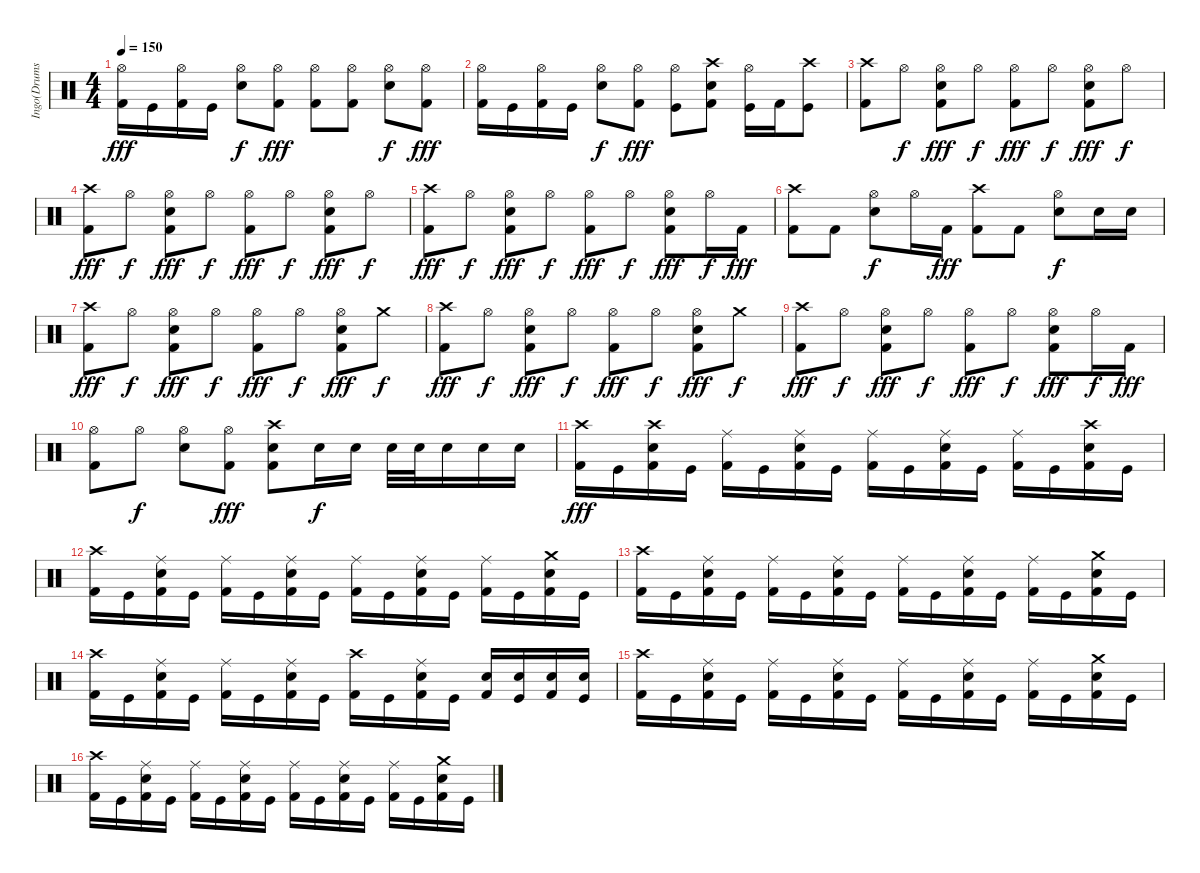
\track ("Ingo(Drums)" "Ingo(Drums") {instrument percussion}
\staff {score}
\articulation defaults
\ts (4 4)
\tempo 150
\clef neutral
\ks c
("Hi-Hat (open)" "Kick (hit) 2").16{dy fff} "Kick (hit)".16 ("Hi-Hat (open)" "Kick (hit) 2").16 "Kick (hit)".16 ("Hi-Hat (open)" "Electric Snare (hit)").8{dy f} ("Hi-Hat (open)" "Kick (hit) 2").8{dy fff} ("Hi-Hat (open)" "Kick (hit) 2").8 ("Hi-Hat (open)" "Kick (hit) 2").8 ("Hi-Hat (open)" "Electric Snare (hit)").8{dy f} ("Hi-Hat (open)" "Kick (hit) 2").8{dy fff} |
("Hi-Hat (open)" "Kick (hit) 2").16 "Kick (hit)".16 ("Hi-Hat (open)" "Kick (hit) 2").16 "Kick (hit)".16 ("Hi-Hat (open)" "Electric Snare (hit)").8{dy f} ("Hi-Hat (open)" "Kick (hit) 2").8{dy fff} ("Hi-Hat (open)" "Kick (hit)").8 ("Crash high (hit)" "Electric Snare (hit)" "Kick (hit) 2").8 ("Hi-Hat (open)" "Kick (hit)").16 "Kick (hit) 2".16 ("Crash high (hit)" "Kick (hit)").8 |
("Crash high (hit)" "Kick (hit) 2").8 "Hi-Hat (open)".8{dy f} ("Hi-Hat (open)" "Electric Snare (hit)" "Kick (hit) 2").8{dy fff} "Hi-Hat (open)".8{dy f} ("Hi-Hat (open)" "Kick (hit) 2").8{dy fff} "Hi-Hat (open)".8{dy f} ("Hi-Hat (open)" "Electric Snare (hit)" "Kick (hit) 2").8{dy fff} "Hi-Hat (open)".8{dy f} |
("Crash high (hit)" "Kick (hit) 2").8{dy fff} "Hi-Hat (open)".8{dy f} ("Hi-Hat (open)" "Electric Snare (hit)" "Kick (hit) 2").8{dy fff} "Hi-Hat (open)".8{dy f} ("Hi-Hat (open)" "Kick (hit) 2").8{dy fff} "Hi-Hat (open)".8{dy f} ("Hi-Hat (open)" "Electric Snare (hit)" "Kick (hit) 2").8{dy fff} "Hi-Hat (open)".8{dy f} |
("Crash high (hit)" "Kick (hit) 2").8{dy fff} "Hi-Hat (open)".8{dy f} ("Hi-Hat (open)" "Electric Snare (hit)" "Kick (hit) 2").8{dy fff} "Hi-Hat (open)".8{dy f} ("Hi-Hat (open)" "Kick (hit) 2").8{dy fff} "Hi-Hat (open)".8{dy f} ("Hi-Hat (open)" "Electric Snare (hit)" "Kick (hit) 2").8{dy fff} "Hi-Hat (open)".16{dy f} "Kick (hit) 2".16{dy fff} |
("Crash high (hit)" "Kick (hit) 2").8 "Kick (hit) 2".8 ("Hi-Hat (open)" "Electric Snare (hit)").8{dy f} "Hi-Hat (open)".16 "Kick (hit) 2".16{dy fff} ("Crash high (hit)" "Kick (hit) 2").8 "Kick (hit) 2".8 ("Hi-Hat (open)" "Electric Snare (hit)").8{dy f} "Electric Snare (hit)".16 "Electric Snare (hit)".16 |
("Crash high (hit)" "Kick (hit) 2").8{dy fff} "Hi-Hat (open)".8{dy f} ("Hi-Hat (open)" "Electric Snare (hit)" "Kick (hit) 2").8{dy fff} "Hi-Hat (open)".8{dy f} ("Hi-Hat (open)" "Kick (hit) 2").8{dy fff} "Hi-Hat (open)".8{dy f} ("Hi-Hat (open)" "Electric Snare (hit)" "Kick (hit) 2").8{dy fff} "Crash medium (hit)".8{dy f} |
("Crash high (hit)" "Kick (hit) 2").8{dy fff} "Hi-Hat (open)".8{dy f} ("Hi-Hat (open)" "Electric Snare (hit)" "Kick (hit) 2").8{dy fff} "Hi-Hat (open)".8{dy f} ("Hi-Hat (open)" "Kick (hit) 2").8{dy fff} "Hi-Hat (open)".8{dy f} ("Hi-Hat (open)" "Electric Snare (hit)" "Kick (hit) 2").8{dy fff} "Crash medium (hit)".8{dy f} |
("Crash high (hit)" "Kick (hit) 2").8{dy fff} "Hi-Hat (open)".8{dy f} ("Hi-Hat (open)" "Electric Snare (hit)" "Kick (hit) 2").8{dy fff} "Hi-Hat (open)".8{dy f} ("Hi-Hat (open)" "Kick (hit) 2").8{dy fff} "Hi-Hat (open)".8{dy f} ("Hi-Hat (open)" "Electric Snare (hit)" "Kick (hit) 2").8{dy fff} "Hi-Hat (open)".16{dy f} "Kick (hit) 2".16{dy fff} |
("Hi-Hat (open)" "Kick (hit) 2").8 "Hi-Hat (open)".8{dy f} ("Hi-Hat (open)" "Electric Snare (hit)").8 ("Hi-Hat (open)" "Kick (hit) 2").8{dy fff} ("Crash high (hit)" "Electric Snare (hit)" "Kick (hit) 2").8 "Electric Snare (hit)".16{dy f} "Electric Snare (hit)".16 "Electric Snare (hit)".32 "Electric Snare (hit)".32 "Electric Snare (hit)".16 "Electric Snare (hit)".16 "Electric Snare (hit)".16 |
("Crash high (hit)" "Kick (hit) 2").16{dy fff} "Kick (hit)".16 ("Crash high (hit)" "Electric Snare (hit)" "Kick (hit) 2").16 "Kick (hit)".16 ("Ride (middle)" "Kick (hit) 2").16 "Kick (hit)".16 ("Ride (middle)" "Electric Snare (hit)" "Kick (hit) 2").16 "Kick (hit)".16 ("Ride (middle)" "Kick (hit) 2").16 "Kick (hit)".16 ("Ride (middle)" "Electric Snare (hit)" "Kick (hit) 2").16 "Kick (hit)".16 ("Ride (middle)" "Kick (hit) 2").16 "Kick (hit)".16 ("Crash high (hit)" "Electric Snare (hit)" "Kick (hit) 2").16 "Kick (hit)".16 |
("Crash high (hit)" "Kick (hit) 2").16 "Kick (hit)".16 ("Ride (middle)" "Electric Snare (hit)" "Kick (hit) 2").16 "Kick (hit)".16 ("Ride (middle)" "Kick (hit) 2").16 "Kick (hit)".16 ("Ride (middle)" "Electric Snare (hit)" "Kick (hit) 2").16 "Kick (hit)".16 ("Ride (middle)" "Kick (hit) 2").16 "Kick (hit)".16 ("Ride (middle)" "Electric Snare (hit)" "Kick (hit) 2").16 "Kick (hit)".16 ("Ride (middle)" "Kick (hit) 2").16 "Kick (hit)".16 ("Crash medium (hit)" "Electric Snare (hit)" "Kick (hit) 2").16 "Kick (hit)".16 |
("Crash high (hit)" "Kick (hit) 2").16 "Kick (hit)".16 ("Ride (middle)" "Electric Snare (hit)" "Kick (hit) 2").16 "Kick (hit)".16 ("Ride (middle)" "Kick (hit) 2").16 "Kick (hit)".16 ("Ride (middle)" "Electric Snare (hit)" "Kick (hit) 2").16 "Kick (hit)".16 ("Ride (middle)" "Kick (hit) 2").16 "Kick (hit)".16 ("Ride (middle)" "Electric Snare (hit)" "Kick (hit) 2").16 "Kick (hit)".16 ("Ride (middle)" "Kick (hit) 2").16 "Kick (hit)".16 ("Crash medium (hit)" "Electric Snare (hit)" "Kick (hit) 2").16 "Kick (hit)".16 |
("Crash high (hit)" "Kick (hit) 2").16 "Kick (hit)".16 ("Ride (middle)" "Electric Snare (hit)" "Kick (hit) 2").16 "Kick (hit)".16 ("Ride (middle)" "Kick (hit) 2").16 "Kick (hit)".16 ("Ride (middle)" "Electric Snare (hit)" "Kick (hit) 2").16 "Kick (hit)".16 ("Crash high (hit)" "Kick (hit) 2").16 "Kick (hit)".16 ("Ride (middle)" "Electric Snare (hit)" "Kick (hit) 2").16 "Kick (hit)".16 ("Electric Snare (hit)" "Kick (hit) 2").16 ("Electric Snare (hit)" "Kick (hit)").16 ("Electric Snare (hit)" "Kick (hit) 2").16 ("Electric Snare (hit)" "Kick (hit)").16 |
("Crash high (hit)" "Kick (hit) 2").16 "Kick (hit)".16 ("Ride (middle)" "Electric Snare (hit)" "Kick (hit) 2").16 "Kick (hit)".16 ("Ride (middle)" "Kick (hit) 2").16 "Kick (hit)".16 ("Ride (middle)" "Electric Snare (hit)" "Kick (hit) 2").16 "Kick (hit)".16 ("Ride (middle)" "Kick (hit) 2").16 "Kick (hit)".16 ("Ride (middle)" "Electric Snare (hit)" "Kick (hit) 2").16 "Kick (hit)".16 ("Ride (middle)" "Kick (hit) 2").16 "Kick (hit)".16 ("Crash medium (hit)" "Electric Snare (hit)" "Kick (hit) 2").16 "Kick (hit)".16 |
("Crash high (hit)" "Kick (hit) 2").16 "Kick (hit)".16 ("Ride (middle)" "Electric Snare (hit)" "Kick (hit) 2").16 "Kick (hit)".16 ("Ride (middle)" "Kick (hit) 2").16 "Kick (hit)".16 ("Ride (middle)" "Electric Snare (hit)" "Kick (hit) 2").16 "Kick (hit)".16 ("Ride (middle)" "Kick (hit) 2").16 "Kick (hit)".16 ("Ride (middle)" "Electric Snare (hit)" "Kick (hit) 2").16 "Kick (hit)".16 ("Ride (middle)" "Kick (hit) 2").16 "Kick (hit)".16 ("Crash medium (hit)" "Electric Snare (hit)" "Kick (hit) 2").16 "Kick (hit)".16
